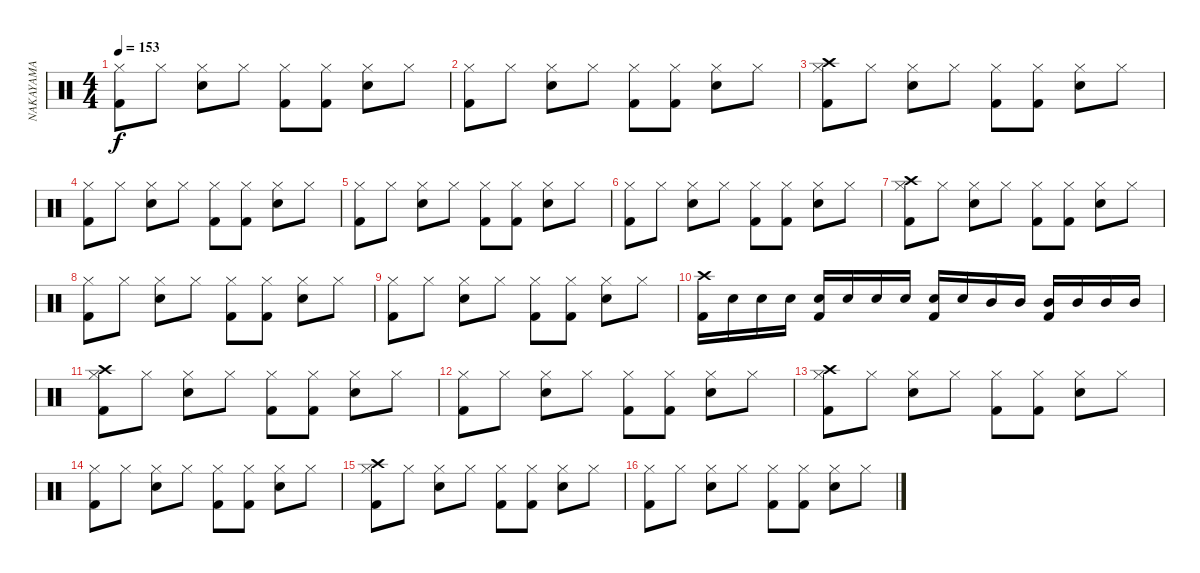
\track ("NAKAYAMA" "NAKAYAMA") {instrument percussion}
\staff {score}
\articulation defaults
\ts (4 4)
\tempo 153
\clef neutral
\ks c
("Hi-Hat (closed)" "Kick (hit) 2").8{dy f} "Hi-Hat (closed)".8 ("Hi-Hat (closed)" "Snare (hit) 2").8 "Hi-Hat (closed)".8 ("Hi-Hat (closed)" "Kick (hit) 2").8 ("Hi-Hat (closed)" "Kick (hit) 2").8 ("Hi-Hat (closed)" "Snare (hit) 2").8 "Hi-Hat (closed)".8 |
("Hi-Hat (closed)" "Kick (hit) 2").8 "Hi-Hat (closed)".8 ("Hi-Hat (closed)" "Snare (hit) 2").8 "Hi-Hat (closed)".8 ("Hi-Hat (closed)" "Kick (hit) 2").8 ("Hi-Hat (closed)" "Kick (hit) 2").8 ("Hi-Hat (closed)" "Snare (hit) 2").8 "Hi-Hat (closed)".8 |
("Crash high (hit)" "Hi-Hat (closed)" "Kick (hit) 2").8 "Hi-Hat (closed)".8 ("Hi-Hat (closed)" "Snare (hit) 2").8 "Hi-Hat (closed)".8 ("Hi-Hat (closed)" "Kick (hit) 2").8 ("Hi-Hat (closed)" "Kick (hit) 2").8 ("Hi-Hat (closed)" "Snare (hit) 2").8 "Hi-Hat (closed)".8 |
("Hi-Hat (closed)" "Kick (hit) 2").8 "Hi-Hat (closed)".8 ("Hi-Hat (closed)" "Snare (hit) 2").8 "Hi-Hat (closed)".8 ("Hi-Hat (closed)" "Kick (hit) 2").8 ("Hi-Hat (closed)" "Kick (hit) 2").8 ("Hi-Hat (closed)" "Snare (hit) 2").8 "Hi-Hat (closed)".8 |
("Hi-Hat (closed)" "Kick (hit) 2").8 "Hi-Hat (closed)".8 ("Hi-Hat (closed)" "Snare (hit) 2").8 "Hi-Hat (closed)".8 ("Hi-Hat (closed)" "Kick (hit) 2").8 ("Hi-Hat (closed)" "Kick (hit) 2").8 ("Hi-Hat (closed)" "Snare (hit) 2").8 "Hi-Hat (closed)".8 |
("Hi-Hat (closed)" "Kick (hit) 2").8 "Hi-Hat (closed)".8 ("Hi-Hat (closed)" "Snare (hit) 2").8 "Hi-Hat (closed)".8 ("Hi-Hat (closed)" "Kick (hit) 2").8 ("Hi-Hat (closed)" "Kick (hit) 2").8 ("Hi-Hat (closed)" "Snare (hit) 2").8 "Hi-Hat (closed)".8 |
("Crash high (hit)" "Hi-Hat (closed)" "Kick (hit) 2").8 "Hi-Hat (closed)".8 ("Hi-Hat (closed)" "Snare (hit) 2").8 "Hi-Hat (closed)".8 ("Hi-Hat (closed)" "Kick (hit) 2").8 ("Hi-Hat (closed)" "Kick (hit) 2").8 ("Hi-Hat (closed)" "Snare (hit) 2").8 "Hi-Hat (closed)".8 |
("Hi-Hat (closed)" "Kick (hit) 2").8 "Hi-Hat (closed)".8 ("Hi-Hat (closed)" "Snare (hit) 2").8 "Hi-Hat (closed)".8 ("Hi-Hat (closed)" "Kick (hit) 2").8 ("Hi-Hat (closed)" "Kick (hit) 2").8 ("Hi-Hat (closed)" "Snare (hit) 2").8 "Hi-Hat (closed)".8 |
("Hi-Hat (closed)" "Kick (hit) 2").8 "Hi-Hat (closed)".8 ("Hi-Hat (closed)" "Snare (hit) 2").8 "Hi-Hat (closed)".8 ("Hi-Hat (closed)" "Kick (hit) 2").8 ("Hi-Hat (closed)" "Kick (hit) 2").8 ("Hi-Hat (closed)" "Snare (hit) 2").8 "Hi-Hat (closed)".8 |
("Crash high (hit)" "Kick (hit) 2").16 "Snare (hit) 2".16 "Snare (hit) 2".16 "Snare (hit) 2".16 ("Snare (hit) 2" "Kick (hit) 2").16 "Snare (hit) 2".16 "Snare (hit) 2".16 "Snare (hit) 2".16 ("Snare (hit) 2" "Kick (hit) 2").16 "Snare (hit) 2".16 "Mid Tom (hit)".16 "Mid Tom (hit)".16 ("Mid Tom (hit)" "Kick (hit) 2").16 "Mid Tom (hit)".16 "Mid Tom (hit)".16 "Mid Tom (hit)".16 |
("Crash high (hit)" "Hi-Hat (closed)" "Kick (hit) 2").8 "Hi-Hat (closed)".8 ("Hi-Hat (closed)" "Snare (hit) 2").8 "Hi-Hat (closed)".8 ("Hi-Hat (closed)" "Kick (hit) 2").8 ("Hi-Hat (closed)" "Kick (hit) 2").8 ("Hi-Hat (closed)" "Snare (hit) 2").8 "Hi-Hat (closed)".8 |
("Hi-Hat (closed)" "Kick (hit) 2").8 "Hi-Hat (closed)".8 ("Hi-Hat (closed)" "Snare (hit) 2").8 "Hi-Hat (closed)".8 ("Hi-Hat (closed)" "Kick (hit) 2").8 ("Hi-Hat (closed)" "Kick (hit) 2").8 ("Hi-Hat (closed)" "Snare (hit) 2").8 "Hi-Hat (closed)".8 |
("Crash high (hit)" "Hi-Hat (closed)" "Kick (hit) 2").8 "Hi-Hat (closed)".8 ("Hi-Hat (closed)" "Snare (hit) 2").8 "Hi-Hat (closed)".8 ("Hi-Hat (closed)" "Kick (hit) 2").8 ("Hi-Hat (closed)" "Kick (hit) 2").8 ("Hi-Hat (closed)" "Snare (hit) 2").8 "Hi-Hat (closed)".8 |
("Hi-Hat (closed)" "Kick (hit) 2").8 "Hi-Hat (closed)".8 ("Hi-Hat (closed)" "Snare (hit) 2").8 "Hi-Hat (closed)".8 ("Hi-Hat (closed)" "Kick (hit) 2").8 ("Hi-Hat (closed)" "Kick (hit) 2").8 ("Hi-Hat (closed)" "Snare (hit) 2").8 "Hi-Hat (closed)".8 |
("Crash high (hit)" "Hi-Hat (closed)" "Kick (hit) 2").8 "Hi-Hat (closed)".8 ("Hi-Hat (closed)" "Snare (hit) 2").8 "Hi-Hat (closed)".8 ("Hi-Hat (closed)" "Kick (hit) 2").8 ("Hi-Hat (closed)" "Kick (hit) 2").8 ("Hi-Hat (closed)" "Snare (hit) 2").8 "Hi-Hat (closed)".8 |
("Hi-Hat (closed)" "Kick (hit) 2").8 "Hi-Hat (closed)".8 ("Hi-Hat (closed)" "Snare (hit) 2").8 "Hi-Hat (closed)".8 ("Hi-Hat (closed)" "Kick (hit) 2").8 ("Hi-Hat (closed)" "Kick (hit) 2").8 ("Hi-Hat (closed)" "Snare (hit) 2").8 "Hi-Hat (closed)".8
